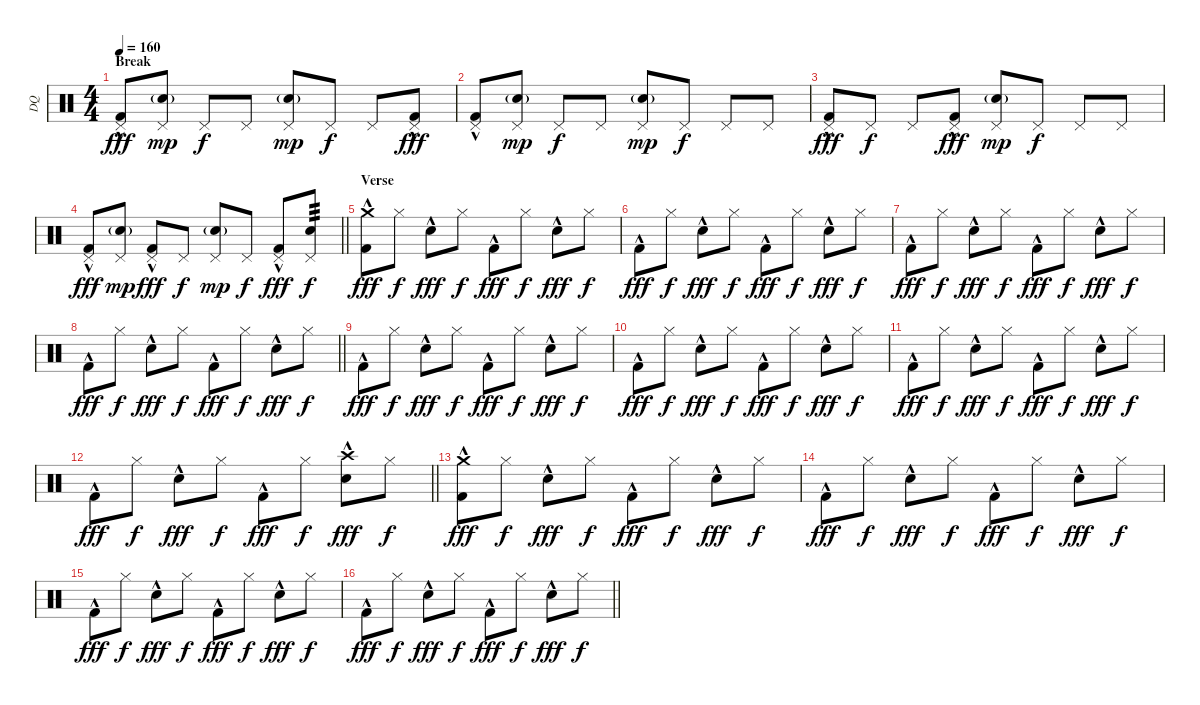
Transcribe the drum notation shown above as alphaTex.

\track ("DQ" "DQ") {instrument percussion}
\staff {score}
\articulation defaults
\ts (4 4)
\section ("" "Break")
\tempo 160
\clef neutral
\ks c
("Kick (hit) 2"{hac} "Pedal Hi-Hat (hit)").8{dy fff} ("Snare (hit) 2"{g} "Pedal Hi-Hat (hit)").8{dy mp} "Pedal Hi-Hat (hit)".8{dy f} "Pedal Hi-Hat (hit)".8 ("Snare (hit) 2"{g} "Pedal Hi-Hat (hit)").8{dy mp} "Pedal Hi-Hat (hit)".8{dy f} "Pedal Hi-Hat (hit)".8 ("Kick (hit) 2"{hac} "Pedal Hi-Hat (hit)").8{dy fff} |
("Kick (hit) 2"{hac} "Pedal Hi-Hat (hit)").8 ("Snare (hit) 2"{g} "Pedal Hi-Hat (hit)").8{dy mp} "Pedal Hi-Hat (hit)".8{dy f} "Pedal Hi-Hat (hit)".8 ("Snare (hit) 2"{g} "Pedal Hi-Hat (hit)").8{dy mp} "Pedal Hi-Hat (hit)".8{dy f} "Pedal Hi-Hat (hit)".8 "Pedal Hi-Hat (hit)".8 |
("Kick (hit) 2"{hac} "Pedal Hi-Hat (hit)").8{dy fff} "Pedal Hi-Hat (hit)".8{dy f} "Pedal Hi-Hat (hit)".8 ("Kick (hit) 2"{hac} "Pedal Hi-Hat (hit)").8{dy fff} ("Snare (hit) 2"{g} "Pedal Hi-Hat (hit)").8{dy mp} "Pedal Hi-Hat (hit)".8{dy f} "Pedal Hi-Hat (hit)".8 "Pedal Hi-Hat (hit)".8 |
\barLineRight lightlight
("Kick (hit) 2"{hac} "Pedal Hi-Hat (hit)").8{dy fff} ("Snare (hit) 2"{g} "Pedal Hi-Hat (hit)").8{dy mp} ("Kick (hit) 2"{hac} "Pedal Hi-Hat (hit)").8{dy fff} "Pedal Hi-Hat (hit)".8{dy f} ("Snare (hit) 2"{g} "Pedal Hi-Hat (hit)").8{dy mp} "Pedal Hi-Hat (hit)".8{dy f} ("Kick (hit) 2"{hac} "Pedal Hi-Hat (hit)").8{dy fff} ("Snare (hit) 2" "Pedal Hi-Hat (hit)").8{tp 3 dy f} |
\section ("" "Verse")
("Kick (hit) 2"{hac} "Crash medium (hit)").8{dy fff} "Hi-Hat (closed)".8{dy f} "Snare (hit) 2"{hac}.8{dy fff} "Hi-Hat (closed)".8{dy f} "Kick (hit) 2"{hac}.8{dy fff} "Hi-Hat (closed)".8{dy f} "Snare (hit) 2"{hac}.8{dy fff} "Hi-Hat (closed)".8{dy f} |
"Kick (hit) 2"{hac}.8{dy fff} "Hi-Hat (closed)".8{dy f} "Snare (hit) 2"{hac}.8{dy fff} "Hi-Hat (closed)".8{dy f} "Kick (hit) 2"{hac}.8{dy fff} "Hi-Hat (closed)".8{dy f} "Snare (hit) 2"{hac}.8{dy fff} "Hi-Hat (closed)".8{dy f} |
"Kick (hit) 2"{hac}.8{dy fff} "Hi-Hat (closed)".8{dy f} "Snare (hit) 2"{hac}.8{dy fff} "Hi-Hat (closed)".8{dy f} "Kick (hit) 2"{hac}.8{dy fff} "Hi-Hat (closed)".8{dy f} "Snare (hit) 2"{hac}.8{dy fff} "Hi-Hat (closed)".8{dy f} |
\barLineRight lightlight "Kick (hit) 2"{hac}.8{dy fff} "Hi-Hat (closed)".8{dy f} "Snare (hit) 2"{hac}.8{dy fff} "Hi-Hat (closed)".8{dy f} "Kick (hit) 2"{hac}.8{dy fff} "Hi-Hat (closed)".8{dy f} "Snare (hit) 2"{hac}.8{dy fff} "Hi-Hat (closed)".8{dy f}
|
\section ("" "")
"Kick (hit) 2"{hac}.8{dy fff} "Hi-Hat (closed)".8{dy f} "Snare (hit) 2"{hac}.8{dy fff} "Hi-Hat (closed)".8{dy f} "Kick (hit) 2"{hac}.8{dy fff} "Hi-Hat (closed)".8{dy f} "Snare (hit) 2"{hac}.8{dy fff} "Hi-Hat (closed)".8{dy f} |
"Kick (hit) 2"{hac}.8{dy fff} "Hi-Hat (closed)".8{dy f} "Snare (hit) 2"{hac}.8{dy fff} "Hi-Hat (closed)".8{dy f} "Kick (hit) 2"{hac}.8{dy fff} "Hi-Hat (closed)".8{dy f} "Snare (hit) 2"{hac}.8{dy fff} "Hi-Hat (closed)".8{dy f} |
"Kick (hit) 2"{hac}.8{dy fff} "Hi-Hat (closed)".8{dy f} "Snare (hit) 2"{hac}.8{dy fff} "Hi-Hat (closed)".8{dy f} "Kick (hit) 2"{hac}.8{dy fff} "Hi-Hat (closed)".8{dy f} "Snare (hit) 2"{hac}.8{dy fff} "Hi-Hat (closed)".8{dy f} |
\barLineRight lightlight "Kick (hit) 2"{hac}.8{dy fff} "Hi-Hat (closed)".8{dy f} "Snare (hit) 2"{hac}.8{dy fff} "Hi-Hat (closed)".8{dy f} "Kick (hit) 2"{hac}.8{dy fff} "Hi-Hat (closed)".8{dy f}
("Snare (hit) 2"{hac} "Crash high (hit)").8{dy fff} "Hi-Hat (closed)".8{dy f} |
\section ("" "")
("Kick (hit) 2"{hac} "Crash medium (hit)").8{dy fff} "Hi-Hat (closed)".8{dy f} "Snare (hit) 2"{hac}.8{dy fff} "Hi-Hat (closed)".8{dy f} "Kick (hit) 2"{hac}.8{dy fff} "Hi-Hat (closed)".8{dy f} "Snare (hit) 2"{hac}.8{dy fff} "Hi-Hat (closed)".8{dy f} |
"Kick (hit) 2"{hac}.8{dy fff} "Hi-Hat (closed)".8{dy f} "Snare (hit) 2"{hac}.8{dy fff} "Hi-Hat (closed)".8{dy f} "Kick (hit) 2"{hac}.8{dy fff} "Hi-Hat (closed)".8{dy f} "Snare (hit) 2"{hac}.8{dy fff} "Hi-Hat (closed)".8{dy f} |
"Kick (hit) 2"{hac}.8{dy fff} "Hi-Hat (closed)".8{dy f} "Snare (hit) 2"{hac}.8{dy fff} "Hi-Hat (closed)".8{dy f} "Kick (hit) 2"{hac}.8{dy fff} "Hi-Hat (closed)".8{dy f} "Snare (hit) 2"{hac}.8{dy fff} "Hi-Hat (closed)".8{dy f} |
\barLineRight lightlight "Kick (hit) 2"{hac}.8{dy fff} "Hi-Hat (closed)".8{dy f} "Snare (hit) 2"{hac}.8{dy fff} "Hi-Hat (closed)".8{dy f} "Kick (hit) 2"{hac}.8{dy fff} "Hi-Hat (closed)".8{dy f} "Snare (hit) 2"{hac}.8{dy fff} "Hi-Hat (closed)".8{dy f}
